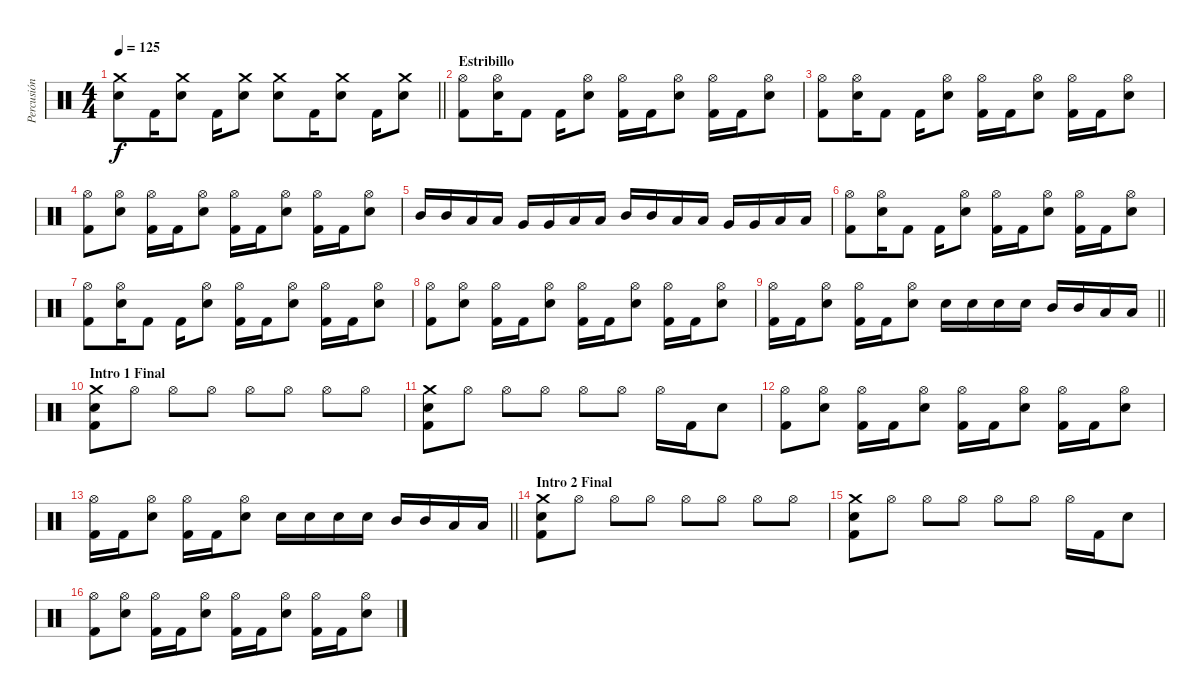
\track ("Percusión" "Percusión") {instrument percussion}
\staff {score}
\articulation defaults
\ts (4 4)
\tempo 125
\clef neutral
\barLineRight lightlight
\ks c
("Crash medium (hit)" "Snare (hit) 2").8{dy f} "Kick (hit) 2".16 ("Crash medium (hit)" "Snare (hit) 2").8 "Kick (hit) 2".16 ("Crash medium (hit)" "Snare (hit) 2").8 ("Crash medium (hit)" "Snare (hit) 2").8 "Kick (hit) 2".16 ("Crash medium (hit)" "Snare (hit) 2").8 "Kick (hit) 2".16 ("Crash medium (hit)" "Snare (hit) 2").8 |
\section ("" "Estribillo")
("Hi-Hat (open)" "Kick (hit) 2").8 ("Hi-Hat (open)" "Snare (hit) 2").16 "Kick (hit) 2".8 "Kick (hit) 2".16 ("Hi-Hat (open)" "Snare (hit) 2").8 ("Hi-Hat (open)" "Kick (hit) 2").16 "Kick (hit) 2".16 ("Hi-Hat (open)" "Snare (hit) 2").8 ("Hi-Hat (open)" "Kick (hit) 2").16 "Kick (hit) 2".16 ("Hi-Hat (open)" "Snare (hit) 2").8 |
("Hi-Hat (open)" "Kick (hit) 2").8 ("Hi-Hat (open)" "Snare (hit) 2").16 "Kick (hit) 2".8 "Kick (hit) 2".16 ("Hi-Hat (open)" "Snare (hit) 2").8 ("Hi-Hat (open)" "Kick (hit) 2").16 "Kick (hit) 2".16 ("Hi-Hat (open)" "Snare (hit) 2").8 ("Hi-Hat (open)" "Kick (hit) 2").16 "Kick (hit) 2".16 ("Hi-Hat (open)" "Snare (hit) 2").8 |
("Hi-Hat (open)" "Kick (hit) 2").8 ("Hi-Hat (open)" "Snare (hit) 2").8 ("Hi-Hat (open)" "Kick (hit) 2").16 "Kick (hit) 2".16 ("Hi-Hat (open)" "Snare (hit) 2").8 ("Hi-Hat (open)" "Kick (hit) 2").16 "Kick (hit) 2".16 ("Hi-Hat (open)" "Snare (hit) 2").8 ("Hi-Hat (open)" "Kick (hit) 2").16 "Kick (hit) 2".16 ("Hi-Hat (open)" "Snare (hit) 2").8 |
"Mid Tom (hit)".16 "Mid Tom (hit)".16 "Low Tom (hit)".16 "Low Tom (hit)".16 "Very Low Tom (hit)".16 "Very Low Tom (hit)".16 "Low Floor Tom (hit)".16 "Low Floor Tom (hit)".16 "Mid Tom (hit)".16 "Mid Tom (hit)".16 "Low Tom (hit)".16 "Low Tom (hit)".16 "Very Low Tom (hit)".16 "Very Low Tom (hit)".16 "Low Floor Tom (hit)".16 "Low Floor Tom (hit)".16 |
("Hi-Hat (open)" "Kick (hit) 2").8 ("Hi-Hat (open)" "Snare (hit) 2").16 "Kick (hit) 2".8 "Kick (hit) 2".16 ("Hi-Hat (open)" "Snare (hit) 2").8 ("Hi-Hat (open)" "Kick (hit) 2").16 "Kick (hit) 2".16 ("Hi-Hat (open)" "Snare (hit) 2").8 ("Hi-Hat (open)" "Kick (hit) 2").16 "Kick (hit) 2".16 ("Hi-Hat (open)" "Snare (hit) 2").8 |
("Hi-Hat (open)" "Kick (hit) 2").8 ("Hi-Hat (open)" "Snare (hit) 2").16 "Kick (hit) 2".8 "Kick (hit) 2".16 ("Hi-Hat (open)" "Snare (hit) 2").8 ("Hi-Hat (open)" "Kick (hit) 2").16 "Kick (hit) 2".16 ("Hi-Hat (open)" "Snare (hit) 2").8 ("Hi-Hat (open)" "Kick (hit) 2").16 "Kick (hit) 2".16 ("Hi-Hat (open)" "Snare (hit) 2").8 |
("Hi-Hat (open)" "Kick (hit) 2").8 ("Hi-Hat (open)" "Snare (hit) 2").8 ("Hi-Hat (open)" "Kick (hit) 2").16 "Kick (hit) 2".16 ("Hi-Hat (open)" "Snare (hit) 2").8 ("Hi-Hat (open)" "Kick (hit) 2").16 "Kick (hit) 2".16 ("Hi-Hat (open)" "Snare (hit) 2").8 ("Hi-Hat (open)" "Kick (hit) 2").16 "Kick (hit) 2".16 ("Hi-Hat (open)" "Snare (hit) 2").8 |
\barLineRight lightlight
("Hi-Hat (open)" "Kick (hit) 2").16 "Kick (hit) 2".16 ("Hi-Hat (open)" "Snare (hit) 2").8 ("Hi-Hat (open)" "Kick (hit) 2").16 "Kick (hit) 2".16 ("Hi-Hat (open)" "Snare (hit) 2").8 "Snare (hit) 2".16 "Snare (hit) 2".16 "Snare (hit) 2".16 "Snare (hit) 2".16 "Mid Tom (hit)".16 "Mid Tom (hit)".16 "Low Tom (hit)".16 "Low Tom (hit)".16 |
\section ("" "Intro 1 Final")
("Crash medium (hit)" "Snare (hit) 2" "Kick (hit) 2").8 "Hi-Hat (open)".8 "Hi-Hat (open)".8 "Hi-Hat (open)".8 "Hi-Hat (open)".8 "Hi-Hat (open)".8 "Hi-Hat (open)".8 "Hi-Hat (open)".8 |
("Crash medium (hit)" "Snare (hit) 2" "Kick (hit) 2").8 "Hi-Hat (open)".8 "Hi-Hat (open)".8 "Hi-Hat (open)".8 "Hi-Hat (open)".8 "Hi-Hat (open)".8 "Hi-Hat (open)".16 "Kick (hit) 2".16 "Snare (hit) 2".8 |
("Hi-Hat (open)" "Kick (hit) 2").8 ("Hi-Hat (open)" "Snare (hit) 2").8 ("Hi-Hat (open)" "Kick (hit) 2").16 "Kick (hit) 2".16 ("Hi-Hat (open)" "Snare (hit) 2").8 ("Hi-Hat (open)" "Kick (hit) 2").16 "Kick (hit) 2".16 ("Hi-Hat (open)" "Snare (hit) 2").8 ("Hi-Hat (open)" "Kick (hit) 2").16 "Kick (hit) 2".16 ("Hi-Hat (open)" "Snare (hit) 2").8 |
\barLineRight lightlight
("Hi-Hat (open)" "Kick (hit) 2").16 "Kick (hit) 2".16 ("Hi-Hat (open)" "Snare (hit) 2").8 ("Hi-Hat (open)" "Kick (hit) 2").16 "Kick (hit) 2".16 ("Hi-Hat (open)" "Snare (hit) 2").8 "Snare (hit) 2".16 "Snare (hit) 2".16 "Snare (hit) 2".16 "Snare (hit) 2".16 "Mid Tom (hit)".16 "Mid Tom (hit)".16 "Low Tom (hit)".16 "Low Tom (hit)".16 |
\section ("" "Intro 2 Final")
("Crash medium (hit)" "Snare (hit) 2" "Kick (hit) 2").8 "Hi-Hat (open)".8 "Hi-Hat (open)".8 "Hi-Hat (open)".8 "Hi-Hat (open)".8 "Hi-Hat (open)".8 "Hi-Hat (open)".8 "Hi-Hat (open)".8 |
("Crash medium (hit)" "Snare (hit) 2" "Kick (hit) 2").8 "Hi-Hat (open)".8 "Hi-Hat (open)".8 "Hi-Hat (open)".8 "Hi-Hat (open)".8 "Hi-Hat (open)".8 "Hi-Hat (open)".16 "Kick (hit) 2".16 "Snare (hit) 2".8 |
("Hi-Hat (open)" "Kick (hit) 2").8 ("Hi-Hat (open)" "Snare (hit) 2").8 ("Hi-Hat (open)" "Kick (hit) 2").16 "Kick (hit) 2".16 ("Hi-Hat (open)" "Snare (hit) 2").8 ("Hi-Hat (open)" "Kick (hit) 2").16 "Kick (hit) 2".16 ("Hi-Hat (open)" "Snare (hit) 2").8 ("Hi-Hat (open)" "Kick (hit) 2").16 "Kick (hit) 2".16 ("Hi-Hat (open)" "Snare (hit) 2").8
